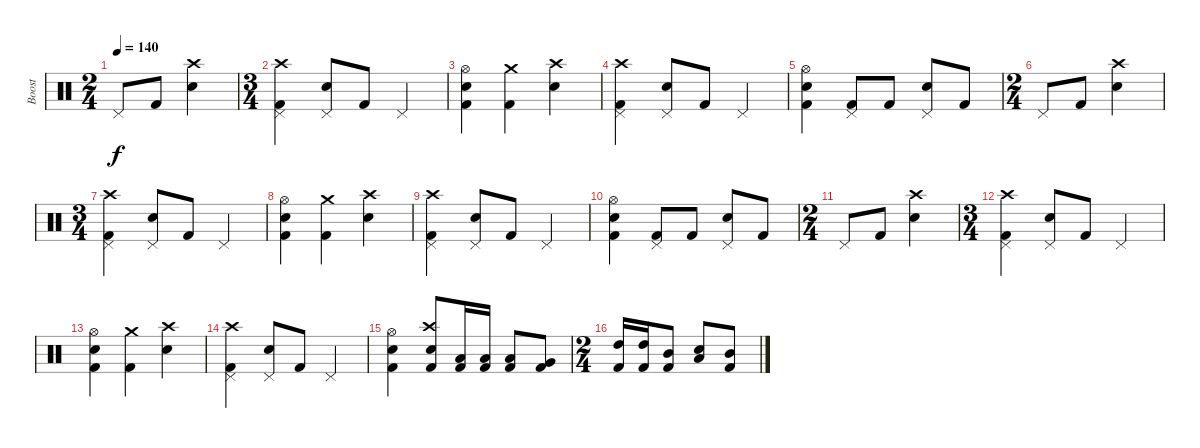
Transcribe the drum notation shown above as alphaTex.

\track ("Boost" "Boost") {instrument percussion}
\staff {score}
\articulation defaults
\ts (2 4)
\tempo 140
\clef neutral
\ks c "Pedal Hi-Hat (hit)".8{dy f} "Kick (hit) 2".8
("Crash high (hit)" "Snare (hit) 2").4 |
\ts (3 4)
("Crash high (hit)" "Pedal Hi-Hat (hit)" "Kick (hit) 2").4 ("Pedal Hi-Hat (hit)" "Snare (hit) 2").8 "Kick (hit) 2".8 "Pedal Hi-Hat (hit)".4 |
("Hi-Hat (open)" "Snare (hit) 2" "Kick (hit) 2").4 ("Crash medium (hit)" "Kick (hit) 2").4 ("Crash high (hit)" "Snare (hit) 2").4 |
("Crash high (hit)" "Pedal Hi-Hat (hit)" "Kick (hit) 2").4 ("Pedal Hi-Hat (hit)" "Snare (hit) 2").8 "Kick (hit) 2".8 "Pedal Hi-Hat (hit)".4 |
("Hi-Hat (open)" "Snare (hit) 2" "Kick (hit) 2").4 ("Pedal Hi-Hat (hit)" "Kick (hit) 2").8 "Kick (hit) 2".8 ("Pedal Hi-Hat (hit)" "Snare (hit) 2").8 "Kick (hit) 2".8 |
\ts (2 4)
"Pedal Hi-Hat (hit)".8 "Kick (hit) 2".8 ("Crash high (hit)" "Snare (hit) 2").4 |
\ts (3 4)
("Crash high (hit)" "Pedal Hi-Hat (hit)" "Kick (hit) 2").4 ("Pedal Hi-Hat (hit)" "Snare (hit) 2").8 "Kick (hit) 2".8 "Pedal Hi-Hat (hit)".4 |
("Hi-Hat (open)" "Snare (hit) 2" "Kick (hit) 2").4 ("Crash medium (hit)" "Kick (hit) 2").4 ("Crash high (hit)" "Snare (hit) 2").4 |
("Crash high (hit)" "Pedal Hi-Hat (hit)" "Kick (hit) 2").4 ("Pedal Hi-Hat (hit)" "Snare (hit) 2").8 "Kick (hit) 2".8 "Pedal Hi-Hat (hit)".4 |
("Hi-Hat (open)" "Snare (hit) 2" "Kick (hit) 2").4 ("Pedal Hi-Hat (hit)" "Kick (hit) 2").8 "Kick (hit) 2".8 ("Pedal Hi-Hat (hit)" "Snare (hit) 2").8 "Kick (hit) 2".8 |
\ts (2 4)
"Pedal Hi-Hat (hit)".8 "Kick (hit) 2".8 ("Crash high (hit)" "Snare (hit) 2").4 |
\ts (3 4)
("Crash high (hit)" "Pedal Hi-Hat (hit)" "Kick (hit) 2").4 ("Pedal Hi-Hat (hit)" "Snare (hit) 2").8 "Kick (hit) 2".8 "Pedal Hi-Hat (hit)".4 |
("Hi-Hat (open)" "Snare (hit) 2" "Kick (hit) 2").4 ("Crash medium (hit)" "Kick (hit) 2").4 ("Crash high (hit)" "Snare (hit) 2").4 |
("Crash high (hit)" "Pedal Hi-Hat (hit)" "Kick (hit) 2").4 ("Pedal Hi-Hat (hit)" "Snare (hit) 2").8 "Kick (hit) 2".8 "Pedal Hi-Hat (hit)".4 |
("Hi-Hat (open)" "Snare (hit) 2" "Kick (hit) 2").4 ("Crash high (hit)" "Snare (hit) 2" "Kick (hit) 2").8 ("Low Tom (hit)" "Kick (hit) 2").16 ("Low Tom (hit)" "Kick (hit) 2").16 ("Low Tom (hit)" "Kick (hit) 2").8 ("Very Low Tom (hit)" "Kick (hit) 2").8 |
\ts (2 4)
("High Tom (hit)" "Kick (hit) 2").16 ("High Tom (hit)" "Kick (hit) 2").16 ("Mid Tom (hit)" "Kick (hit) 2").8 ("Low Tom (hit)" "Snare (hit) 2").8 ("Mid Tom (hit)" "Kick (hit) 2").8
